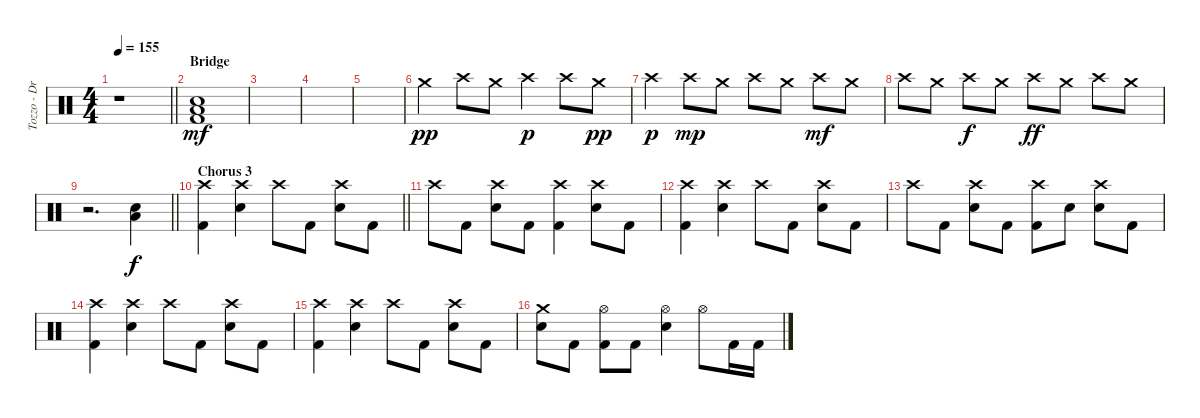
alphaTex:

\track ("Tozzo - Drums" "Tozzo - Dr") {instrument percussion}
\staff {score}
\articulation defaults
\ts (4 4)
\tempo 155
\clef neutral
\barLineRight lightlight
\ks c
r.1{dy f} |
\section ("" "Bridge")
("Snare (hit) 2" "Low Floor Tom (hit)" "Kick (hit) 2").1{dy mf} |
|
|
|
"Crash medium (hit)".4{dy pp} "Crash high (hit)".8 "Crash medium (hit)".8 "Crash high (hit)".4{dy p} "Crash high (hit)".8 "Crash medium (hit)".8{dy pp} |
"Crash high (hit)".4{dy p} "Crash high (hit)".8{dy mp} "Crash medium (hit)".8 "Crash high (hit)".8 "Crash medium (hit)".8 "Crash high (hit)".8{dy mf} "Crash medium (hit)".8 |
"Crash high (hit)".8 "Crash medium (hit)".8 "Crash high (hit)".8{dy f} "Crash medium (hit)".8 "Crash high (hit)".8{dy ff} "Crash medium (hit)".8 "Crash high (hit)".8 "Crash medium (hit)".8 |
\barLineRight lightlight
r.2{d} ("Snare (hit) 2" "Low Tom (hit)").4{dy f} |
\section ("" "Chorus 3")
\barLineRight lightlight
("Crash high (hit)" "Kick (hit) 2").4 ("Crash high (hit)" "Snare (hit) 2").4 "Crash high (hit)".8 "Kick (hit) 2".8 ("Crash high (hit)" "Snare (hit) 2").8 "Kick (hit) 2".8 |
"Crash high (hit)".8 "Kick (hit) 2".8 ("Crash high (hit)" "Snare (hit) 2").8 "Kick (hit) 2".8 ("Crash high (hit)" "Kick (hit) 2").4 ("Crash high (hit)" "Snare (hit) 2").8 "Kick (hit) 2".8 |
("Crash high (hit)" "Kick (hit) 2").4 ("Crash high (hit)" "Snare (hit) 2").4 "Crash high (hit)".8 "Kick (hit) 2".8 ("Crash high (hit)" "Snare (hit) 2").8 "Kick (hit) 2".8 |
"Crash high (hit)".8 "Kick (hit) 2".8 ("Crash high (hit)" "Snare (hit) 2").8 "Kick (hit) 2".8 ("Crash high (hit)" "Kick (hit) 2").8 "Snare (hit) 2".8 ("Crash high (hit)" "Snare (hit) 2").8 "Kick (hit) 2".8 |
("Crash high (hit)" "Kick (hit) 2").4 ("Crash high (hit)" "Snare (hit) 2").4 "Crash high (hit)".8 "Kick (hit) 2".8 ("Crash high (hit)" "Snare (hit) 2").8 "Kick (hit) 2".8 |
("Crash high (hit)" "Kick (hit) 2").4 ("Crash high (hit)" "Snare (hit) 2").4 "Crash high (hit)".8 "Kick (hit) 2".8 ("Crash high (hit)" "Snare (hit) 2").8 "Kick (hit) 2".8 |
("Crash medium (hit)" "Snare (hit) 2").8 "Kick (hit) 2".8 ("Hi-Hat (open)" "Kick (hit) 2").8 "Kick (hit) 2".8 ("Hi-Hat (open)" "Snare (hit) 2").4 "Hi-Hat (open)".8 "Kick (hit) 2".16 "Kick (hit) 2".16
